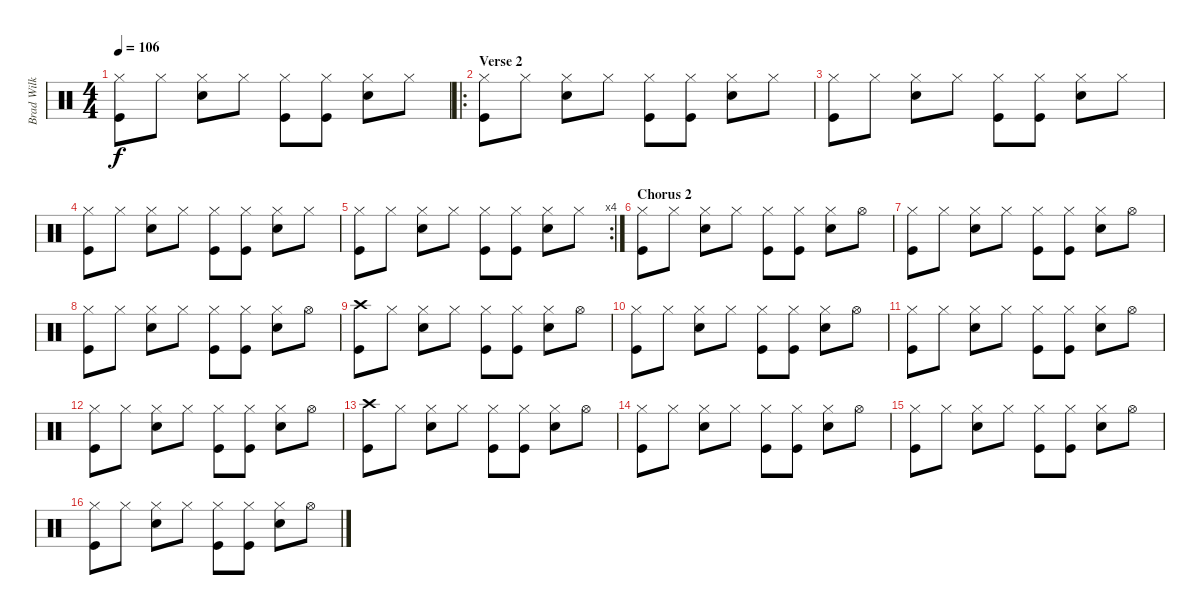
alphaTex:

\track ("Brad Wilk" "Brad Wilk") {instrument percussion}
\staff {score}
\articulation defaults
\ts (4 4)
\tempo 106
\clef neutral
\ks c
("Hi-Hat (closed)" "Kick (hit)").8{dy f} "Hi-Hat (closed)".8 ("Hi-Hat (closed)" "Electric Snare (hit)").8 "Hi-Hat (closed)".8 ("Hi-Hat (closed)" "Kick (hit)").8 ("Hi-Hat (closed)" "Kick (hit)").8 ("Hi-Hat (closed)" "Electric Snare (hit)").8 "Hi-Hat (closed)".8 |
\ro
\section ("" "Verse 2")
("Hi-Hat (closed)" "Kick (hit)").8 "Hi-Hat (closed)".8 ("Hi-Hat (closed)" "Electric Snare (hit)").8 "Hi-Hat (closed)".8 ("Hi-Hat (closed)" "Kick (hit)").8 ("Hi-Hat (closed)" "Kick (hit)").8 ("Hi-Hat (closed)" "Electric Snare (hit)").8 "Hi-Hat (closed)".8 |
("Hi-Hat (closed)" "Kick (hit)").8 "Hi-Hat (closed)".8 ("Hi-Hat (closed)" "Electric Snare (hit)").8 "Hi-Hat (closed)".8 ("Hi-Hat (closed)" "Kick (hit)").8 ("Hi-Hat (closed)" "Kick (hit)").8 ("Hi-Hat (closed)" "Electric Snare (hit)").8 "Hi-Hat (closed)".8 |
("Hi-Hat (closed)" "Kick (hit)").8 "Hi-Hat (closed)".8 ("Hi-Hat (closed)" "Electric Snare (hit)").8 "Hi-Hat (closed)".8 ("Hi-Hat (closed)" "Kick (hit)").8 ("Hi-Hat (closed)" "Kick (hit)").8 ("Hi-Hat (closed)" "Electric Snare (hit)").8 "Hi-Hat (closed)".8 |
\rc 4
("Hi-Hat (closed)" "Kick (hit)").8 "Hi-Hat (closed)".8 ("Hi-Hat (closed)" "Electric Snare (hit)").8 "Hi-Hat (closed)".8 ("Hi-Hat (closed)" "Kick (hit)").8 ("Hi-Hat (closed)" "Kick (hit)").8 ("Hi-Hat (closed)" "Electric Snare (hit)").8 "Hi-Hat (closed)".8 |
\section ("" "Chorus 2")
("Hi-Hat (closed)" "Kick (hit)").8 "Hi-Hat (closed)".8 ("Hi-Hat (closed)" "Electric Snare (hit)").8 "Hi-Hat (closed)".8 ("Hi-Hat (closed)" "Kick (hit)").8 ("Hi-Hat (closed)" "Kick (hit)").8 ("Hi-Hat (closed)" "Electric Snare (hit)").8 "Hi-Hat (open)".8 |
("Hi-Hat (closed)" "Kick (hit)").8 "Hi-Hat (closed)".8 ("Hi-Hat (closed)" "Electric Snare (hit)").8 "Hi-Hat (closed)".8 ("Hi-Hat (closed)" "Kick (hit)").8 ("Hi-Hat (closed)" "Kick (hit)").8 ("Hi-Hat (closed)" "Electric Snare (hit)").8 "Hi-Hat (open)".8 |
("Hi-Hat (closed)" "Kick (hit)").8 "Hi-Hat (closed)".8 ("Hi-Hat (closed)" "Electric Snare (hit)").8 "Hi-Hat (closed)".8 ("Hi-Hat (closed)" "Kick (hit)").8 ("Hi-Hat (closed)" "Kick (hit)").8 ("Hi-Hat (closed)" "Electric Snare (hit)").8 "Hi-Hat (open)".8 |
("Crash high (hit)" "Kick (hit)").8 "Hi-Hat (closed)".8 ("Hi-Hat (closed)" "Electric Snare (hit)").8 "Hi-Hat (closed)".8 ("Hi-Hat (closed)" "Kick (hit)").8 ("Hi-Hat (closed)" "Kick (hit)").8 ("Hi-Hat (closed)" "Electric Snare (hit)").8 "Hi-Hat (open)".8 |
("Hi-Hat (closed)" "Kick (hit)").8 "Hi-Hat (closed)".8 ("Hi-Hat (closed)" "Electric Snare (hit)").8 "Hi-Hat (closed)".8 ("Hi-Hat (closed)" "Kick (hit)").8 ("Hi-Hat (closed)" "Kick (hit)").8 ("Hi-Hat (closed)" "Electric Snare (hit)").8 "Hi-Hat (open)".8 |
("Hi-Hat (closed)" "Kick (hit)").8 "Hi-Hat (closed)".8 ("Hi-Hat (closed)" "Electric Snare (hit)").8 "Hi-Hat (closed)".8 ("Hi-Hat (closed)" "Kick (hit)").8 ("Hi-Hat (closed)" "Kick (hit)").8 ("Hi-Hat (closed)" "Electric Snare (hit)").8 "Hi-Hat (open)".8 |
("Hi-Hat (closed)" "Kick (hit)").8 "Hi-Hat (closed)".8 ("Hi-Hat (closed)" "Electric Snare (hit)").8 "Hi-Hat (closed)".8 ("Hi-Hat (closed)" "Kick (hit)").8 ("Hi-Hat (closed)" "Kick (hit)").8 ("Hi-Hat (closed)" "Electric Snare (hit)").8 "Hi-Hat (open)".8 |
("Crash high (hit)" "Kick (hit)").8 "Hi-Hat (closed)".8 ("Hi-Hat (closed)" "Electric Snare (hit)").8 "Hi-Hat (closed)".8 ("Hi-Hat (closed)" "Kick (hit)").8 ("Hi-Hat (closed)" "Kick (hit)").8 ("Hi-Hat (closed)" "Electric Snare (hit)").8 "Hi-Hat (open)".8 |
("Hi-Hat (closed)" "Kick (hit)").8 "Hi-Hat (closed)".8 ("Hi-Hat (closed)" "Electric Snare (hit)").8 "Hi-Hat (closed)".8 ("Hi-Hat (closed)" "Kick (hit)").8 ("Hi-Hat (closed)" "Kick (hit)").8 ("Hi-Hat (closed)" "Electric Snare (hit)").8 "Hi-Hat (open)".8 |
("Hi-Hat (closed)" "Kick (hit)").8 "Hi-Hat (closed)".8 ("Hi-Hat (closed)" "Electric Snare (hit)").8 "Hi-Hat (closed)".8 ("Hi-Hat (closed)" "Kick (hit)").8 ("Hi-Hat (closed)" "Kick (hit)").8 ("Hi-Hat (closed)" "Electric Snare (hit)").8 "Hi-Hat (open)".8 |
("Hi-Hat (closed)" "Kick (hit)").8 "Hi-Hat (closed)".8 ("Hi-Hat (closed)" "Electric Snare (hit)").8 "Hi-Hat (closed)".8 ("Hi-Hat (closed)" "Kick (hit)").8 ("Hi-Hat (closed)" "Kick (hit)").8 ("Hi-Hat (closed)" "Electric Snare (hit)").8 "Hi-Hat (open)".8
